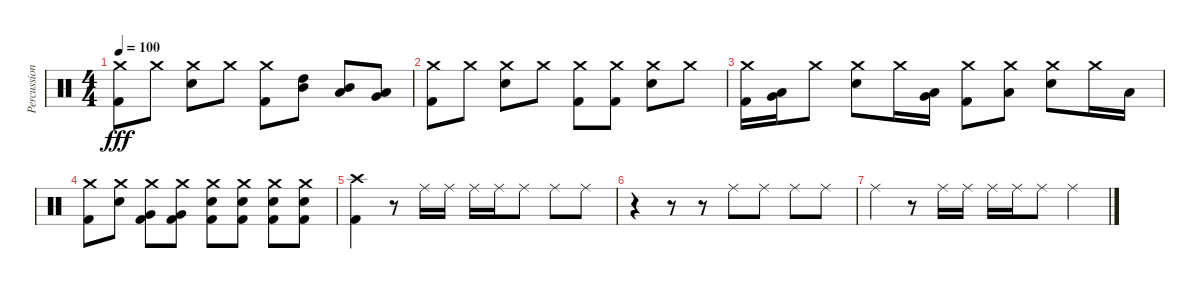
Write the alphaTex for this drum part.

\track ("Percussion" "Percussion") {instrument percussion}
\staff {score}
\articulation defaults
\ts (4 4)
\tempo 100
\clef neutral
\ks c
("Crash medium (hit)" "Kick (hit) 2").8{dy fff} "Crash medium (hit)".8 ("Crash medium (hit)" "Electric Snare (hit)").8 "Crash medium (hit)".8 ("Crash medium (hit)" "Kick (hit) 2").8 ("High Tom (hit)" "Mid Tom (hit)").8 ("Mid Tom (hit)" "Low Tom (hit)").8 ("Low Tom (hit)" "Very Low Tom (hit)").8 |
("Crash medium (hit)" "Kick (hit) 2").8 "Crash medium (hit)".8 ("Crash medium (hit)" "Electric Snare (hit)").8 "Crash medium (hit)".8 ("Crash medium (hit)" "Kick (hit) 2").8 ("Crash medium (hit)" "Kick (hit) 2").8 ("Crash medium (hit)" "Electric Snare (hit)").8 "Crash medium (hit)".8 |
("Crash medium (hit)" "Kick (hit) 2").16 ("Low Tom (hit)" "Very Low Tom (hit)").16 "Crash medium (hit)".8 ("Crash medium (hit)" "Electric Snare (hit)").8 "Crash medium (hit)".16 ("Low Tom (hit)" "Very Low Tom (hit)").16 ("Crash medium (hit)" "Kick (hit) 2").8 ("Crash medium (hit)" "Low Tom (hit)").8 ("Crash medium (hit)" "Electric Snare (hit)").8 "Crash medium (hit)".16 "Low Tom (hit)".16 |
("Crash medium (hit)" "Kick (hit) 2").8 ("Crash medium (hit)" "Electric Snare (hit)").8 ("Crash medium (hit)" "Very Low Tom (hit)" "Kick (hit) 2").8 ("Crash medium (hit)" "Very Low Tom (hit)" "Kick (hit) 2").8 ("Crash medium (hit)" "Electric Snare (hit)" "Kick (hit) 2").8 ("Crash medium (hit)" "Electric Snare (hit)" "Kick (hit) 2").8 ("Crash medium (hit)" "Electric Snare (hit)" "Kick (hit) 2").8 ("Crash medium (hit)" "Electric Snare (hit)" "Kick (hit) 2").8 |
("Crash high (hit)" "Kick (hit) 2").4 r.8 "Ride (middle)".16 "Ride (middle)".16 "Ride (middle)".16 "Ride (middle)".16 "Ride (middle)".8 "Ride (middle)".8 "Ride (middle)".8 |
r.4 r.8 r.8 "Ride (middle)".8 "Ride (middle)".8 "Ride (middle)".8 "Ride (middle)".8 |
"Ride (middle)".4 r.8 "Ride (middle)".16 "Ride (middle)".16 "Ride (middle)".16 "Ride (middle)".16 "Ride (middle)".8 "Ride (middle)".4
